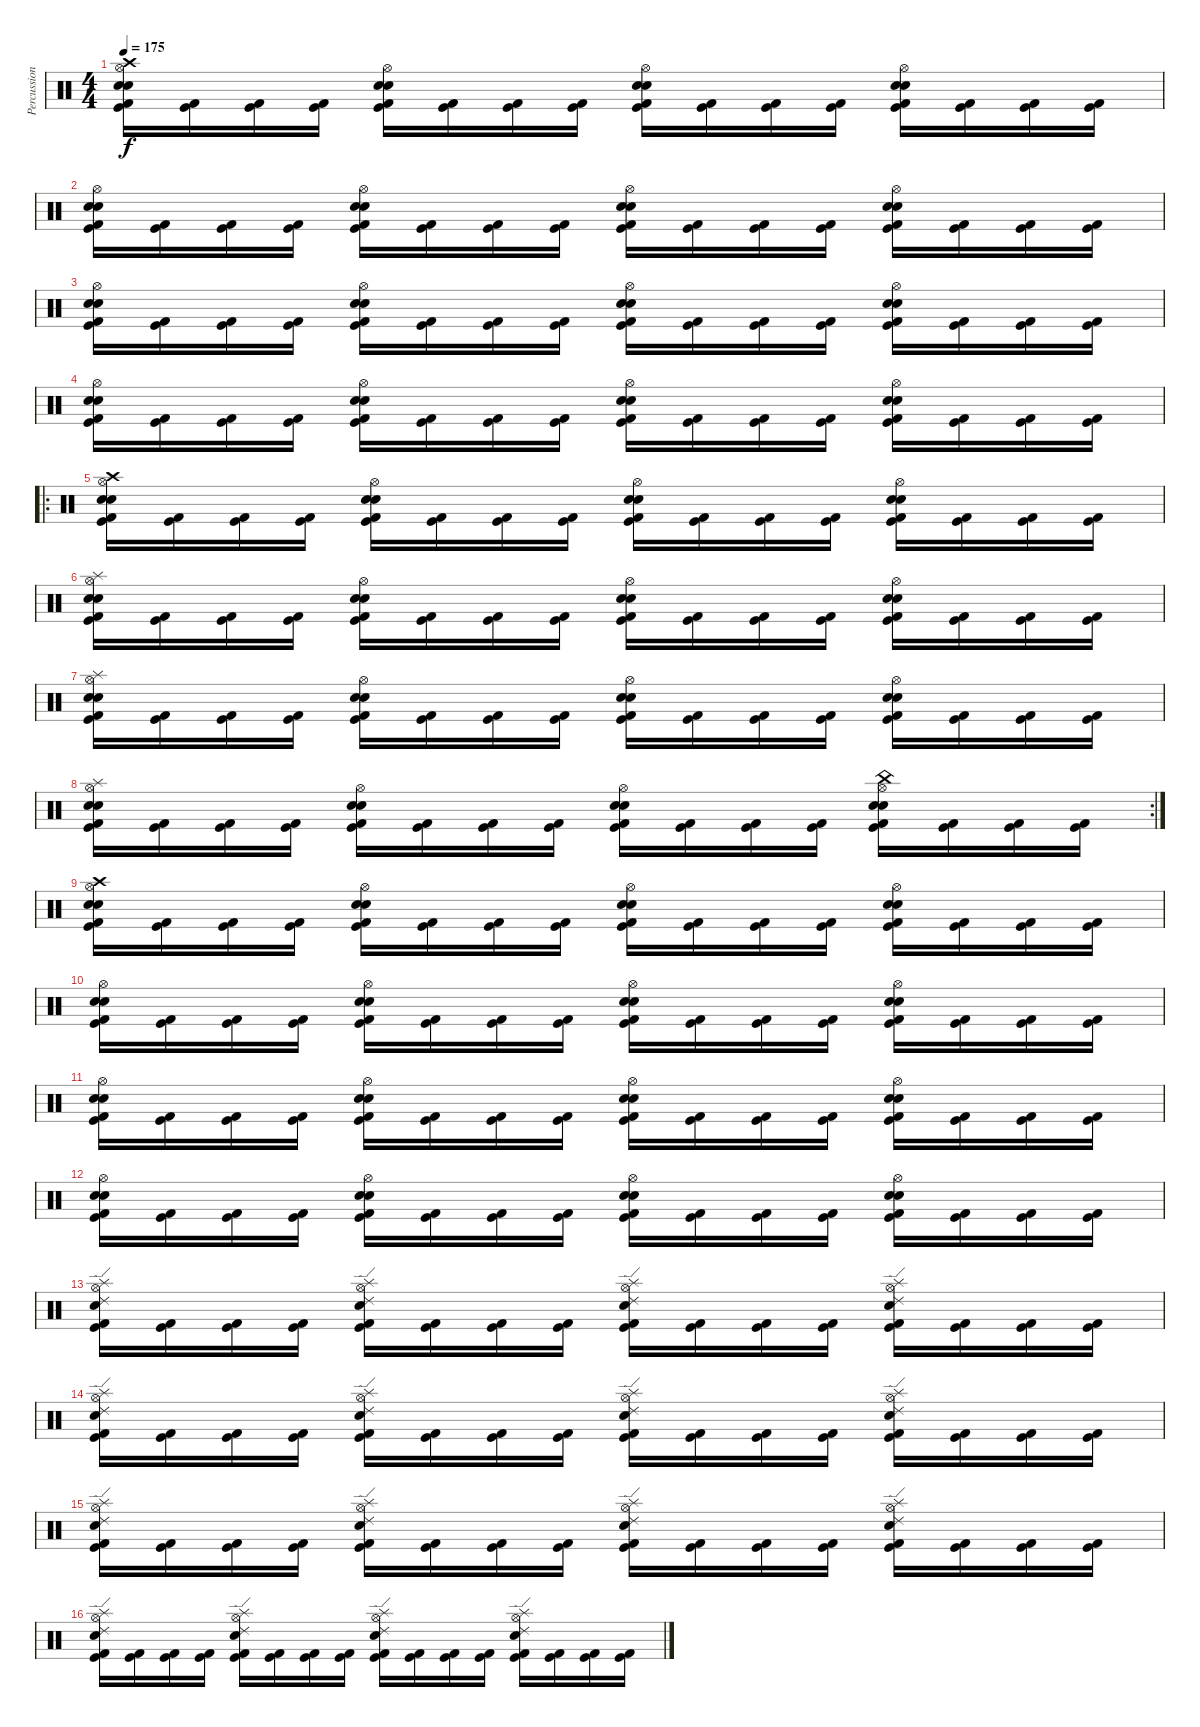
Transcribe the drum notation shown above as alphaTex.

\track ("Percussion" "Percussion") {instrument percussion}
\staff {score}
\articulation defaults
\ts (4 4)
\tempo 175
\clef neutral
\ks c
("Crash high (hit)" "Hi-Hat (open)" "Electric Snare (hit)" "Snare (hit) 2" "Kick (hit) 2" "Kick (hit)").16{dy f} ("Kick (hit) 2" "Kick (hit)").16 ("Kick (hit) 2" "Kick (hit)").16 ("Kick (hit) 2" "Kick (hit)").16 ("Hi-Hat (open)" "Electric Snare (hit)" "Snare (hit) 2" "Kick (hit) 2" "Kick (hit)").16 ("Kick (hit) 2" "Kick (hit)").16 ("Kick (hit) 2" "Kick (hit)").16 ("Kick (hit) 2" "Kick (hit)").16 ("Hi-Hat (open)" "Electric Snare (hit)" "Snare (hit) 2" "Kick (hit) 2" "Kick (hit)").16 ("Kick (hit) 2" "Kick (hit)").16 ("Kick (hit) 2" "Kick (hit)").16 ("Kick (hit) 2" "Kick (hit)").16 ("Hi-Hat (open)" "Electric Snare (hit)" "Snare (hit) 2" "Kick (hit) 2" "Kick (hit)").16 ("Kick (hit) 2" "Kick (hit)").16 ("Kick (hit) 2" "Kick (hit)").16 ("Kick (hit) 2" "Kick (hit)").16 |
("Hi-Hat (open)" "Electric Snare (hit)" "Snare (hit) 2" "Kick (hit) 2" "Kick (hit)").16 ("Kick (hit) 2" "Kick (hit)").16 ("Kick (hit) 2" "Kick (hit)").16 ("Kick (hit) 2" "Kick (hit)").16 ("Hi-Hat (open)" "Electric Snare (hit)" "Snare (hit) 2" "Kick (hit) 2" "Kick (hit)").16 ("Kick (hit) 2" "Kick (hit)").16 ("Kick (hit) 2" "Kick (hit)").16 ("Kick (hit) 2" "Kick (hit)").16 ("Hi-Hat (open)" "Electric Snare (hit)" "Snare (hit) 2" "Kick (hit) 2" "Kick (hit)").16 ("Kick (hit) 2" "Kick (hit)").16 ("Kick (hit) 2" "Kick (hit)").16 ("Kick (hit) 2" "Kick (hit)").16 ("Hi-Hat (open)" "Electric Snare (hit)" "Snare (hit) 2" "Kick (hit) 2" "Kick (hit)").16 ("Kick (hit) 2" "Kick (hit)").16 ("Kick (hit) 2" "Kick (hit)").16 ("Kick (hit) 2" "Kick (hit)").16 |
("Hi-Hat (open)" "Electric Snare (hit)" "Snare (hit) 2" "Kick (hit) 2" "Kick (hit)").16 ("Kick (hit) 2" "Kick (hit)").16 ("Kick (hit) 2" "Kick (hit)").16 ("Kick (hit) 2" "Kick (hit)").16 ("Hi-Hat (open)" "Electric Snare (hit)" "Snare (hit) 2" "Kick (hit) 2" "Kick (hit)").16 ("Kick (hit) 2" "Kick (hit)").16 ("Kick (hit) 2" "Kick (hit)").16 ("Kick (hit) 2" "Kick (hit)").16 ("Hi-Hat (open)" "Electric Snare (hit)" "Snare (hit) 2" "Kick (hit) 2" "Kick (hit)").16 ("Kick (hit) 2" "Kick (hit)").16 ("Kick (hit) 2" "Kick (hit)").16 ("Kick (hit) 2" "Kick (hit)").16 ("Hi-Hat (open)" "Electric Snare (hit)" "Snare (hit) 2" "Kick (hit) 2" "Kick (hit)").16 ("Kick (hit) 2" "Kick (hit)").16 ("Kick (hit) 2" "Kick (hit)").16 ("Kick (hit) 2" "Kick (hit)").16 |
("Hi-Hat (open)" "Electric Snare (hit)" "Snare (hit) 2" "Kick (hit) 2" "Kick (hit)").16 ("Kick (hit) 2" "Kick (hit)").16 ("Kick (hit) 2" "Kick (hit)").16 ("Kick (hit) 2" "Kick (hit)").16 ("Hi-Hat (open)" "Electric Snare (hit)" "Snare (hit) 2" "Kick (hit) 2" "Kick (hit)").16 ("Kick (hit) 2" "Kick (hit)").16 ("Kick (hit) 2" "Kick (hit)").16 ("Kick (hit) 2" "Kick (hit)").16 ("Hi-Hat (open)" "Electric Snare (hit)" "Snare (hit) 2" "Kick (hit) 2" "Kick (hit)").16 ("Kick (hit) 2" "Kick (hit)").16 ("Kick (hit) 2" "Kick (hit)").16 ("Kick (hit) 2" "Kick (hit)").16 ("Hi-Hat (open)" "Electric Snare (hit)" "Snare (hit) 2" "Kick (hit) 2" "Kick (hit)").16 ("Kick (hit) 2" "Kick (hit)").16 ("Kick (hit) 2" "Kick (hit)").16 ("Kick (hit) 2" "Kick (hit)").16 |
\ro
("Crash high (hit)" "Hi-Hat (open)" "Electric Snare (hit)" "Snare (hit) 2" "Kick (hit) 2" "Kick (hit)").16 ("Kick (hit) 2" "Kick (hit)").16 ("Kick (hit) 2" "Kick (hit)").16 ("Kick (hit) 2" "Kick (hit)").16 ("Hi-Hat (open)" "Electric Snare (hit)" "Snare (hit) 2" "Kick (hit) 2" "Kick (hit)").16 ("Kick (hit) 2" "Kick (hit)").16 ("Kick (hit) 2" "Kick (hit)").16 ("Kick (hit) 2" "Kick (hit)").16 ("Hi-Hat (open)" "Electric Snare (hit)" "Snare (hit) 2" "Kick (hit) 2" "Kick (hit)").16 ("Kick (hit) 2" "Kick (hit)").16 ("Kick (hit) 2" "Kick (hit)").16 ("Kick (hit) 2" "Kick (hit)").16 ("Hi-Hat (open)" "Electric Snare (hit)" "Snare (hit) 2" "Kick (hit) 2" "Kick (hit)").16 ("Kick (hit) 2" "Kick (hit)").16 ("Kick (hit) 2" "Kick (hit)").16 ("Kick (hit) 2" "Kick (hit)").16 |
("Splash (hit)" "Hi-Hat (open)" "Electric Snare (hit)" "Snare (hit) 2" "Kick (hit) 2" "Kick (hit)").16 ("Kick (hit) 2" "Kick (hit)").16 ("Kick (hit) 2" "Kick (hit)").16 ("Kick (hit) 2" "Kick (hit)").16 ("Hi-Hat (open)" "Electric Snare (hit)" "Snare (hit) 2" "Kick (hit) 2" "Kick (hit)").16 ("Kick (hit) 2" "Kick (hit)").16 ("Kick (hit) 2" "Kick (hit)").16 ("Kick (hit) 2" "Kick (hit)").16 ("Hi-Hat (open)" "Electric Snare (hit)" "Snare (hit) 2" "Kick (hit) 2" "Kick (hit)").16 ("Kick (hit) 2" "Kick (hit)").16 ("Kick (hit) 2" "Kick (hit)").16 ("Kick (hit) 2" "Kick (hit)").16 ("Hi-Hat (open)" "Electric Snare (hit)" "Snare (hit) 2" "Kick (hit) 2" "Kick (hit)").16 ("Kick (hit) 2" "Kick (hit)").16 ("Kick (hit) 2" "Kick (hit)").16 ("Kick (hit) 2" "Kick (hit)").16 |
("Splash (hit)" "Hi-Hat (open)" "Electric Snare (hit)" "Snare (hit) 2" "Kick (hit) 2" "Kick (hit)").16 ("Kick (hit) 2" "Kick (hit)").16 ("Kick (hit) 2" "Kick (hit)").16 ("Kick (hit) 2" "Kick (hit)").16 ("Hi-Hat (open)" "Electric Snare (hit)" "Snare (hit) 2" "Kick (hit) 2" "Kick (hit)").16 ("Kick (hit) 2" "Kick (hit)").16 ("Kick (hit) 2" "Kick (hit)").16 ("Kick (hit) 2" "Kick (hit)").16 ("Hi-Hat (open)" "Electric Snare (hit)" "Snare (hit) 2" "Kick (hit) 2" "Kick (hit)").16 ("Kick (hit) 2" "Kick (hit)").16 ("Kick (hit) 2" "Kick (hit)").16 ("Kick (hit) 2" "Kick (hit)").16 ("Hi-Hat (open)" "Electric Snare (hit)" "Snare (hit) 2" "Kick (hit) 2" "Kick (hit)").16 ("Kick (hit) 2" "Kick (hit)").16 ("Kick (hit) 2" "Kick (hit)").16 ("Kick (hit) 2" "Kick (hit)").16 |
\rc 2
("Splash (hit)" "Hi-Hat (open)" "Electric Snare (hit)" "Snare (hit) 2" "Kick (hit) 2" "Kick (hit)").16 ("Kick (hit) 2" "Kick (hit)").16 ("Kick (hit) 2" "Kick (hit)").16 ("Kick (hit) 2" "Kick (hit)").16 ("Hi-Hat (open)" "Electric Snare (hit)" "Snare (hit) 2" "Kick (hit) 2" "Kick (hit)").16 ("Kick (hit) 2" "Kick (hit)").16 ("Kick (hit) 2" "Kick (hit)").16 ("Kick (hit) 2" "Kick (hit)").16 ("Hi-Hat (open)" "Electric Snare (hit)" "Snare (hit) 2" "Kick (hit) 2" "Kick (hit)").16 ("Kick (hit) 2" "Kick (hit)").16 ("Kick (hit) 2" "Kick (hit)").16 ("Kick (hit) 2" "Kick (hit)").16 ("China (hit)" "Hi-Hat (open)" "Electric Snare (hit)" "Snare (hit) 2" "Kick (hit) 2" "Kick (hit)").16 ("Kick (hit) 2" "Kick (hit)").16 ("Kick (hit) 2" "Kick (hit)").16 ("Kick (hit) 2" "Kick (hit)").16 |
("Crash high (hit)" "Hi-Hat (open)" "Electric Snare (hit)" "Snare (hit) 2" "Kick (hit) 2" "Kick (hit)").16 ("Kick (hit) 2" "Kick (hit)").16 ("Kick (hit) 2" "Kick (hit)").16 ("Kick (hit) 2" "Kick (hit)").16 ("Hi-Hat (open)" "Electric Snare (hit)" "Snare (hit) 2" "Kick (hit) 2" "Kick (hit)").16 ("Kick (hit) 2" "Kick (hit)").16 ("Kick (hit) 2" "Kick (hit)").16 ("Kick (hit) 2" "Kick (hit)").16 ("Hi-Hat (open)" "Electric Snare (hit)" "Snare (hit) 2" "Kick (hit) 2" "Kick (hit)").16 ("Kick (hit) 2" "Kick (hit)").16 ("Kick (hit) 2" "Kick (hit)").16 ("Kick (hit) 2" "Kick (hit)").16 ("Hi-Hat (open)" "Electric Snare (hit)" "Snare (hit) 2" "Kick (hit) 2" "Kick (hit)").16 ("Kick (hit) 2" "Kick (hit)").16 ("Kick (hit) 2" "Kick (hit)").16 ("Kick (hit) 2" "Kick (hit)").16 |
("Hi-Hat (open)" "Electric Snare (hit)" "Snare (hit) 2" "Kick (hit) 2" "Kick (hit)").16 ("Kick (hit) 2" "Kick (hit)").16 ("Kick (hit) 2" "Kick (hit)").16 ("Kick (hit) 2" "Kick (hit)").16 ("Hi-Hat (open)" "Electric Snare (hit)" "Snare (hit) 2" "Kick (hit) 2" "Kick (hit)").16 ("Kick (hit) 2" "Kick (hit)").16 ("Kick (hit) 2" "Kick (hit)").16 ("Kick (hit) 2" "Kick (hit)").16 ("Hi-Hat (open)" "Electric Snare (hit)" "Snare (hit) 2" "Kick (hit) 2" "Kick (hit)").16 ("Kick (hit) 2" "Kick (hit)").16 ("Kick (hit) 2" "Kick (hit)").16 ("Kick (hit) 2" "Kick (hit)").16 ("Hi-Hat (open)" "Electric Snare (hit)" "Snare (hit) 2" "Kick (hit) 2" "Kick (hit)").16 ("Kick (hit) 2" "Kick (hit)").16 ("Kick (hit) 2" "Kick (hit)").16 ("Kick (hit) 2" "Kick (hit)").16 |
("Hi-Hat (open)" "Electric Snare (hit)" "Snare (hit) 2" "Kick (hit) 2" "Kick (hit)").16 ("Kick (hit) 2" "Kick (hit)").16 ("Kick (hit) 2" "Kick (hit)").16 ("Kick (hit) 2" "Kick (hit)").16 ("Hi-Hat (open)" "Electric Snare (hit)" "Snare (hit) 2" "Kick (hit) 2" "Kick (hit)").16 ("Kick (hit) 2" "Kick (hit)").16 ("Kick (hit) 2" "Kick (hit)").16 ("Kick (hit) 2" "Kick (hit)").16 ("Hi-Hat (open)" "Electric Snare (hit)" "Snare (hit) 2" "Kick (hit) 2" "Kick (hit)").16 ("Kick (hit) 2" "Kick (hit)").16 ("Kick (hit) 2" "Kick (hit)").16 ("Kick (hit) 2" "Kick (hit)").16 ("Hi-Hat (open)" "Electric Snare (hit)" "Snare (hit) 2" "Kick (hit) 2" "Kick (hit)").16 ("Kick (hit) 2" "Kick (hit)").16 ("Kick (hit) 2" "Kick (hit)").16 ("Kick (hit) 2" "Kick (hit)").16 |
("Hi-Hat (open)" "Electric Snare (hit)" "Snare (hit) 2" "Kick (hit) 2" "Kick (hit)").16 ("Kick (hit) 2" "Kick (hit)").16 ("Kick (hit) 2" "Kick (hit)").16 ("Kick (hit) 2" "Kick (hit)").16 ("Hi-Hat (open)" "Electric Snare (hit)" "Snare (hit) 2" "Kick (hit) 2" "Kick (hit)").16 ("Kick (hit) 2" "Kick (hit)").16 ("Kick (hit) 2" "Kick (hit)").16 ("Kick (hit) 2" "Kick (hit)").16 ("Hi-Hat (open)" "Electric Snare (hit)" "Snare (hit) 2" "Kick (hit) 2" "Kick (hit)").16 ("Kick (hit) 2" "Kick (hit)").16 ("Kick (hit) 2" "Kick (hit)").16 ("Kick (hit) 2" "Kick (hit)").16 ("Hi-Hat (open)" "Electric Snare (hit)" "Snare (hit) 2" "Kick (hit) 2" "Kick (hit)").16 ("Kick (hit) 2" "Kick (hit)").16 ("Kick (hit) 2" "Kick (hit)").16 ("Kick (hit) 2" "Kick (hit)").16 |
("Ride (edge) 2" "Splash (hit)" "Electric Snare (hit)" "Hi-Hat (open)" "Kick (hit) 2" "Kick (hit)").16 ("Kick (hit) 2" "Kick (hit)").16 ("Kick (hit) 2" "Kick (hit)").16 ("Kick (hit) 2" "Kick (hit)").16 ("Ride (edge) 2" "Splash (hit)" "Electric Snare (hit)" "Hi-Hat (open)" "Kick (hit) 2" "Kick (hit)").16 ("Kick (hit) 2" "Kick (hit)").16 ("Kick (hit) 2" "Kick (hit)").16 ("Kick (hit) 2" "Kick (hit)").16 ("Ride (edge) 2" "Splash (hit)" "Electric Snare (hit)" "Hi-Hat (open)" "Kick (hit) 2" "Kick (hit)").16 ("Kick (hit) 2" "Kick (hit)").16 ("Kick (hit) 2" "Kick (hit)").16 ("Kick (hit) 2" "Kick (hit)").16 ("Ride (edge) 2" "Splash (hit)" "Electric Snare (hit)" "Hi-Hat (open)" "Kick (hit) 2" "Kick (hit)").16 ("Kick (hit) 2" "Kick (hit)").16 ("Kick (hit) 2" "Kick (hit)").16 ("Kick (hit) 2" "Kick (hit)").16 |
("Ride (edge) 2" "Splash (hit)" "Electric Snare (hit)" "Hi-Hat (open)" "Kick (hit) 2" "Kick (hit)").16 ("Kick (hit) 2" "Kick (hit)").16 ("Kick (hit) 2" "Kick (hit)").16 ("Kick (hit) 2" "Kick (hit)").16 ("Ride (edge) 2" "Splash (hit)" "Electric Snare (hit)" "Hi-Hat (open)" "Kick (hit) 2" "Kick (hit)").16 ("Kick (hit) 2" "Kick (hit)").16 ("Kick (hit) 2" "Kick (hit)").16 ("Kick (hit) 2" "Kick (hit)").16 ("Ride (edge) 2" "Splash (hit)" "Electric Snare (hit)" "Hi-Hat (open)" "Kick (hit) 2" "Kick (hit)").16 ("Kick (hit) 2" "Kick (hit)").16 ("Kick (hit) 2" "Kick (hit)").16 ("Kick (hit) 2" "Kick (hit)").16 ("Ride (edge) 2" "Splash (hit)" "Electric Snare (hit)" "Hi-Hat (open)" "Kick (hit) 2" "Kick (hit)").16 ("Kick (hit) 2" "Kick (hit)").16 ("Kick (hit) 2" "Kick (hit)").16 ("Kick (hit) 2" "Kick (hit)").16 |
("Ride (edge) 2" "Splash (hit)" "Electric Snare (hit)" "Hi-Hat (open)" "Kick (hit) 2" "Kick (hit)").16 ("Kick (hit) 2" "Kick (hit)").16 ("Kick (hit) 2" "Kick (hit)").16 ("Kick (hit) 2" "Kick (hit)").16 ("Ride (edge) 2" "Splash (hit)" "Electric Snare (hit)" "Hi-Hat (open)" "Kick (hit) 2" "Kick (hit)").16 ("Kick (hit) 2" "Kick (hit)").16 ("Kick (hit) 2" "Kick (hit)").16 ("Kick (hit) 2" "Kick (hit)").16 ("Ride (edge) 2" "Splash (hit)" "Electric Snare (hit)" "Hi-Hat (open)" "Kick (hit) 2" "Kick (hit)").16 ("Kick (hit) 2" "Kick (hit)").16 ("Kick (hit) 2" "Kick (hit)").16 ("Kick (hit) 2" "Kick (hit)").16 ("Ride (edge) 2" "Splash (hit)" "Electric Snare (hit)" "Hi-Hat (open)" "Kick (hit) 2" "Kick (hit)").16 ("Kick (hit) 2" "Kick (hit)").16 ("Kick (hit) 2" "Kick (hit)").16 ("Kick (hit) 2" "Kick (hit)").16 |
("Ride (edge) 2" "Splash (hit)" "Electric Snare (hit)" "Hi-Hat (open)" "Kick (hit) 2" "Kick (hit)").16 ("Kick (hit) 2" "Kick (hit)").16 ("Kick (hit) 2" "Kick (hit)").16 ("Kick (hit) 2" "Kick (hit)").16 ("Ride (edge) 2" "Splash (hit)" "Electric Snare (hit)" "Hi-Hat (open)" "Kick (hit) 2" "Kick (hit)").16 ("Kick (hit) 2" "Kick (hit)").16 ("Kick (hit) 2" "Kick (hit)").16 ("Kick (hit) 2" "Kick (hit)").16 ("Ride (edge) 2" "Splash (hit)" "Electric Snare (hit)" "Hi-Hat (open)" "Kick (hit) 2" "Kick (hit)").16 ("Kick (hit) 2" "Kick (hit)").16 ("Kick (hit) 2" "Kick (hit)").16 ("Kick (hit) 2" "Kick (hit)").16 ("Ride (edge) 2" "Splash (hit)" "Electric Snare (hit)" "Hi-Hat (open)" "Kick (hit) 2" "Kick (hit)").16 ("Kick (hit) 2" "Kick (hit)").16 ("Kick (hit) 2" "Kick (hit)").16 ("Kick (hit) 2" "Kick (hit)").16
